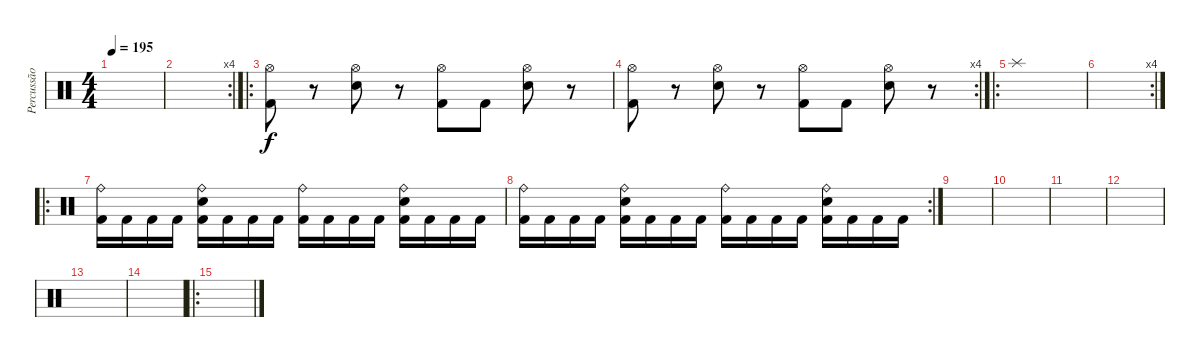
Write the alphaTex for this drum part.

\track ("Percussão" "Percussão") {instrument percussion}
\staff {score}
\articulation defaults
\ts (4 4)
\tempo 195
\clef neutral
\ks c
|
\rc 4
|
\ro
("Hi-Hat (open)" "Kick (hit) 2").8 r.8 ("Hi-Hat (open)" "Electric Snare (hit)").8 r.8 ("Hi-Hat (open)" "Kick (hit) 2").8 "Kick (hit) 2".8 ("Hi-Hat (open)" "Electric Snare (hit)").8 r.8 |
\rc 4
("Hi-Hat (open)" "Kick (hit) 2").8 r.8 ("Hi-Hat (open)" "Electric Snare (hit)").8 r.8 ("Hi-Hat (open)" "Kick (hit) 2").8 "Kick (hit) 2".8 ("Hi-Hat (open)" "Electric Snare (hit)").8 r.8 |
\ro "Splash (hit)".1
|
\rc 4
|
\ro
("Ride (bell)" "Kick (hit) 2").16 "Kick (hit) 2".16 "Kick (hit) 2".16 "Kick (hit) 2".16 ("Ride (bell)" "Electric Snare (hit)" "Kick (hit) 2").16 "Kick (hit) 2".16 "Kick (hit) 2".16 "Kick (hit) 2".16 ("Ride (bell)" "Kick (hit) 2").16 "Kick (hit) 2".16 "Kick (hit) 2".16 "Kick (hit) 2".16 ("Ride (bell)" "Electric Snare (hit)" "Kick (hit) 2").16 "Kick (hit) 2".16 "Kick (hit) 2".16 "Kick (hit) 2".16 |
\rc 2
("Ride (bell)" "Kick (hit) 2").16 "Kick (hit) 2".16 "Kick (hit) 2".16 "Kick (hit) 2".16 ("Ride (bell)" "Electric Snare (hit)" "Kick (hit) 2").16 "Kick (hit) 2".16 "Kick (hit) 2".16 "Kick (hit) 2".16 ("Ride (bell)" "Kick (hit) 2").16 "Kick (hit) 2".16 "Kick (hit) 2".16 "Kick (hit) 2".16 ("Ride (bell)" "Electric Snare (hit)" "Kick (hit) 2").16 "Kick (hit) 2".16 "Kick (hit) 2".16 "Kick (hit) 2".16 |
|
|
|
|
|
|
\ro
